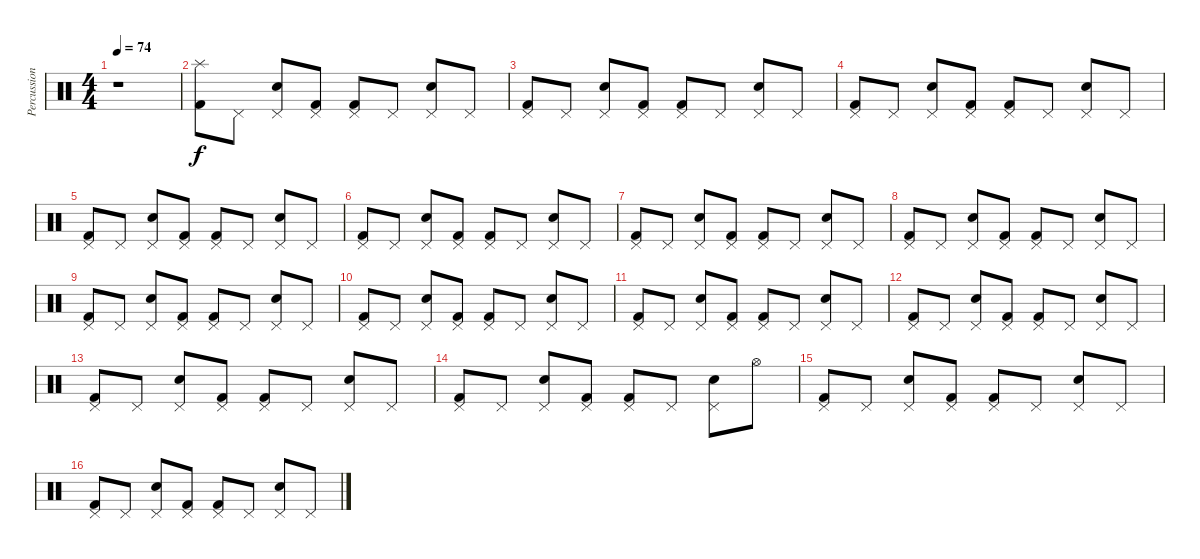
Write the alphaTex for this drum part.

\track ("Percussion" "Percussion") {instrument percussion}
\staff {score}
\articulation defaults
\ts (4 4)
\tempo 74
\clef neutral
\ks c
r.1{dy f} |
("Splash (hit)" "Kick (hit) 2").8 "Pedal Hi-Hat (hit)".8 ("Pedal Hi-Hat (hit)" "Snare (hit) 2").8 ("Pedal Hi-Hat (hit)" "Kick (hit) 2").8 ("Pedal Hi-Hat (hit)" "Kick (hit) 2").8 "Pedal Hi-Hat (hit)".8 ("Pedal Hi-Hat (hit)" "Snare (hit) 2").8 "Pedal Hi-Hat (hit)".8 |
("Pedal Hi-Hat (hit)" "Kick (hit) 2").8 "Pedal Hi-Hat (hit)".8 ("Pedal Hi-Hat (hit)" "Snare (hit) 2").8 ("Pedal Hi-Hat (hit)" "Kick (hit) 2").8 ("Pedal Hi-Hat (hit)" "Kick (hit) 2").8 "Pedal Hi-Hat (hit)".8 ("Pedal Hi-Hat (hit)" "Snare (hit) 2").8 "Pedal Hi-Hat (hit)".8 |
("Pedal Hi-Hat (hit)" "Kick (hit) 2").8 "Pedal Hi-Hat (hit)".8 ("Pedal Hi-Hat (hit)" "Snare (hit) 2").8 ("Pedal Hi-Hat (hit)" "Kick (hit) 2").8 ("Pedal Hi-Hat (hit)" "Kick (hit) 2").8 "Pedal Hi-Hat (hit)".8 ("Pedal Hi-Hat (hit)" "Snare (hit) 2").8 "Pedal Hi-Hat (hit)".8 |
("Pedal Hi-Hat (hit)" "Kick (hit) 2").8 "Pedal Hi-Hat (hit)".8 ("Pedal Hi-Hat (hit)" "Snare (hit) 2").8 ("Pedal Hi-Hat (hit)" "Kick (hit) 2").8 ("Pedal Hi-Hat (hit)" "Kick (hit) 2").8 "Pedal Hi-Hat (hit)".8 ("Pedal Hi-Hat (hit)" "Snare (hit) 2").8 "Pedal Hi-Hat (hit)".8 |
("Pedal Hi-Hat (hit)" "Kick (hit) 2").8 "Pedal Hi-Hat (hit)".8 ("Pedal Hi-Hat (hit)" "Snare (hit) 2").8 ("Pedal Hi-Hat (hit)" "Kick (hit) 2").8 ("Pedal Hi-Hat (hit)" "Kick (hit) 2").8 "Pedal Hi-Hat (hit)".8 ("Pedal Hi-Hat (hit)" "Snare (hit) 2").8 "Pedal Hi-Hat (hit)".8 |
("Pedal Hi-Hat (hit)" "Kick (hit) 2").8 "Pedal Hi-Hat (hit)".8 ("Pedal Hi-Hat (hit)" "Snare (hit) 2").8 ("Pedal Hi-Hat (hit)" "Kick (hit) 2").8 ("Pedal Hi-Hat (hit)" "Kick (hit) 2").8 "Pedal Hi-Hat (hit)".8 ("Pedal Hi-Hat (hit)" "Snare (hit) 2").8 "Pedal Hi-Hat (hit)".8 |
("Pedal Hi-Hat (hit)" "Kick (hit) 2").8 "Pedal Hi-Hat (hit)".8 ("Pedal Hi-Hat (hit)" "Snare (hit) 2").8 ("Pedal Hi-Hat (hit)" "Kick (hit) 2").8 ("Pedal Hi-Hat (hit)" "Kick (hit) 2").8 "Pedal Hi-Hat (hit)".8 ("Pedal Hi-Hat (hit)" "Snare (hit) 2").8 "Pedal Hi-Hat (hit)".8 |
("Pedal Hi-Hat (hit)" "Kick (hit) 2").8 "Pedal Hi-Hat (hit)".8 ("Pedal Hi-Hat (hit)" "Snare (hit) 2").8 ("Pedal Hi-Hat (hit)" "Kick (hit) 2").8 ("Pedal Hi-Hat (hit)" "Kick (hit) 2").8 "Pedal Hi-Hat (hit)".8 ("Pedal Hi-Hat (hit)" "Snare (hit) 2").8 "Pedal Hi-Hat (hit)".8 |
("Pedal Hi-Hat (hit)" "Kick (hit) 2").8 "Pedal Hi-Hat (hit)".8 ("Pedal Hi-Hat (hit)" "Snare (hit) 2").8 ("Pedal Hi-Hat (hit)" "Kick (hit) 2").8 ("Pedal Hi-Hat (hit)" "Kick (hit) 2").8 "Pedal Hi-Hat (hit)".8 ("Pedal Hi-Hat (hit)" "Snare (hit) 2").8 "Pedal Hi-Hat (hit)".8 |
("Pedal Hi-Hat (hit)" "Kick (hit) 2").8 "Pedal Hi-Hat (hit)".8 ("Pedal Hi-Hat (hit)" "Snare (hit) 2").8 ("Pedal Hi-Hat (hit)" "Kick (hit) 2").8 ("Pedal Hi-Hat (hit)" "Kick (hit) 2").8 "Pedal Hi-Hat (hit)".8 ("Pedal Hi-Hat (hit)" "Snare (hit) 2").8 "Pedal Hi-Hat (hit)".8 |
("Pedal Hi-Hat (hit)" "Kick (hit) 2").8 "Pedal Hi-Hat (hit)".8 ("Pedal Hi-Hat (hit)" "Snare (hit) 2").8 ("Pedal Hi-Hat (hit)" "Kick (hit) 2").8 ("Pedal Hi-Hat (hit)" "Kick (hit) 2").8 "Pedal Hi-Hat (hit)".8 ("Pedal Hi-Hat (hit)" "Snare (hit) 2").8 "Pedal Hi-Hat (hit)".8 |
("Pedal Hi-Hat (hit)" "Kick (hit) 2").8 "Pedal Hi-Hat (hit)".8 ("Pedal Hi-Hat (hit)" "Snare (hit) 2").8 ("Pedal Hi-Hat (hit)" "Kick (hit) 2").8 ("Pedal Hi-Hat (hit)" "Kick (hit) 2").8 "Pedal Hi-Hat (hit)".8 ("Pedal Hi-Hat (hit)" "Snare (hit) 2").8 "Pedal Hi-Hat (hit)".8 |
("Pedal Hi-Hat (hit)" "Kick (hit) 2").8 "Pedal Hi-Hat (hit)".8 ("Pedal Hi-Hat (hit)" "Snare (hit) 2").8 ("Pedal Hi-Hat (hit)" "Kick (hit) 2").8 ("Pedal Hi-Hat (hit)" "Kick (hit) 2").8 "Pedal Hi-Hat (hit)".8 ("Pedal Hi-Hat (hit)" "Snare (hit) 2").8 "Hi-Hat (open)".8 |
("Pedal Hi-Hat (hit)" "Kick (hit) 2").8 "Pedal Hi-Hat (hit)".8 ("Pedal Hi-Hat (hit)" "Snare (hit) 2").8 ("Pedal Hi-Hat (hit)" "Kick (hit) 2").8 ("Pedal Hi-Hat (hit)" "Kick (hit) 2").8 "Pedal Hi-Hat (hit)".8 ("Pedal Hi-Hat (hit)" "Snare (hit) 2").8 "Pedal Hi-Hat (hit)".8 |
("Pedal Hi-Hat (hit)" "Kick (hit) 2").8 "Pedal Hi-Hat (hit)".8 ("Pedal Hi-Hat (hit)" "Snare (hit) 2").8 ("Pedal Hi-Hat (hit)" "Kick (hit) 2").8 ("Pedal Hi-Hat (hit)" "Kick (hit) 2").8 "Pedal Hi-Hat (hit)".8 ("Pedal Hi-Hat (hit)" "Snare (hit) 2").8 "Pedal Hi-Hat (hit)".8
